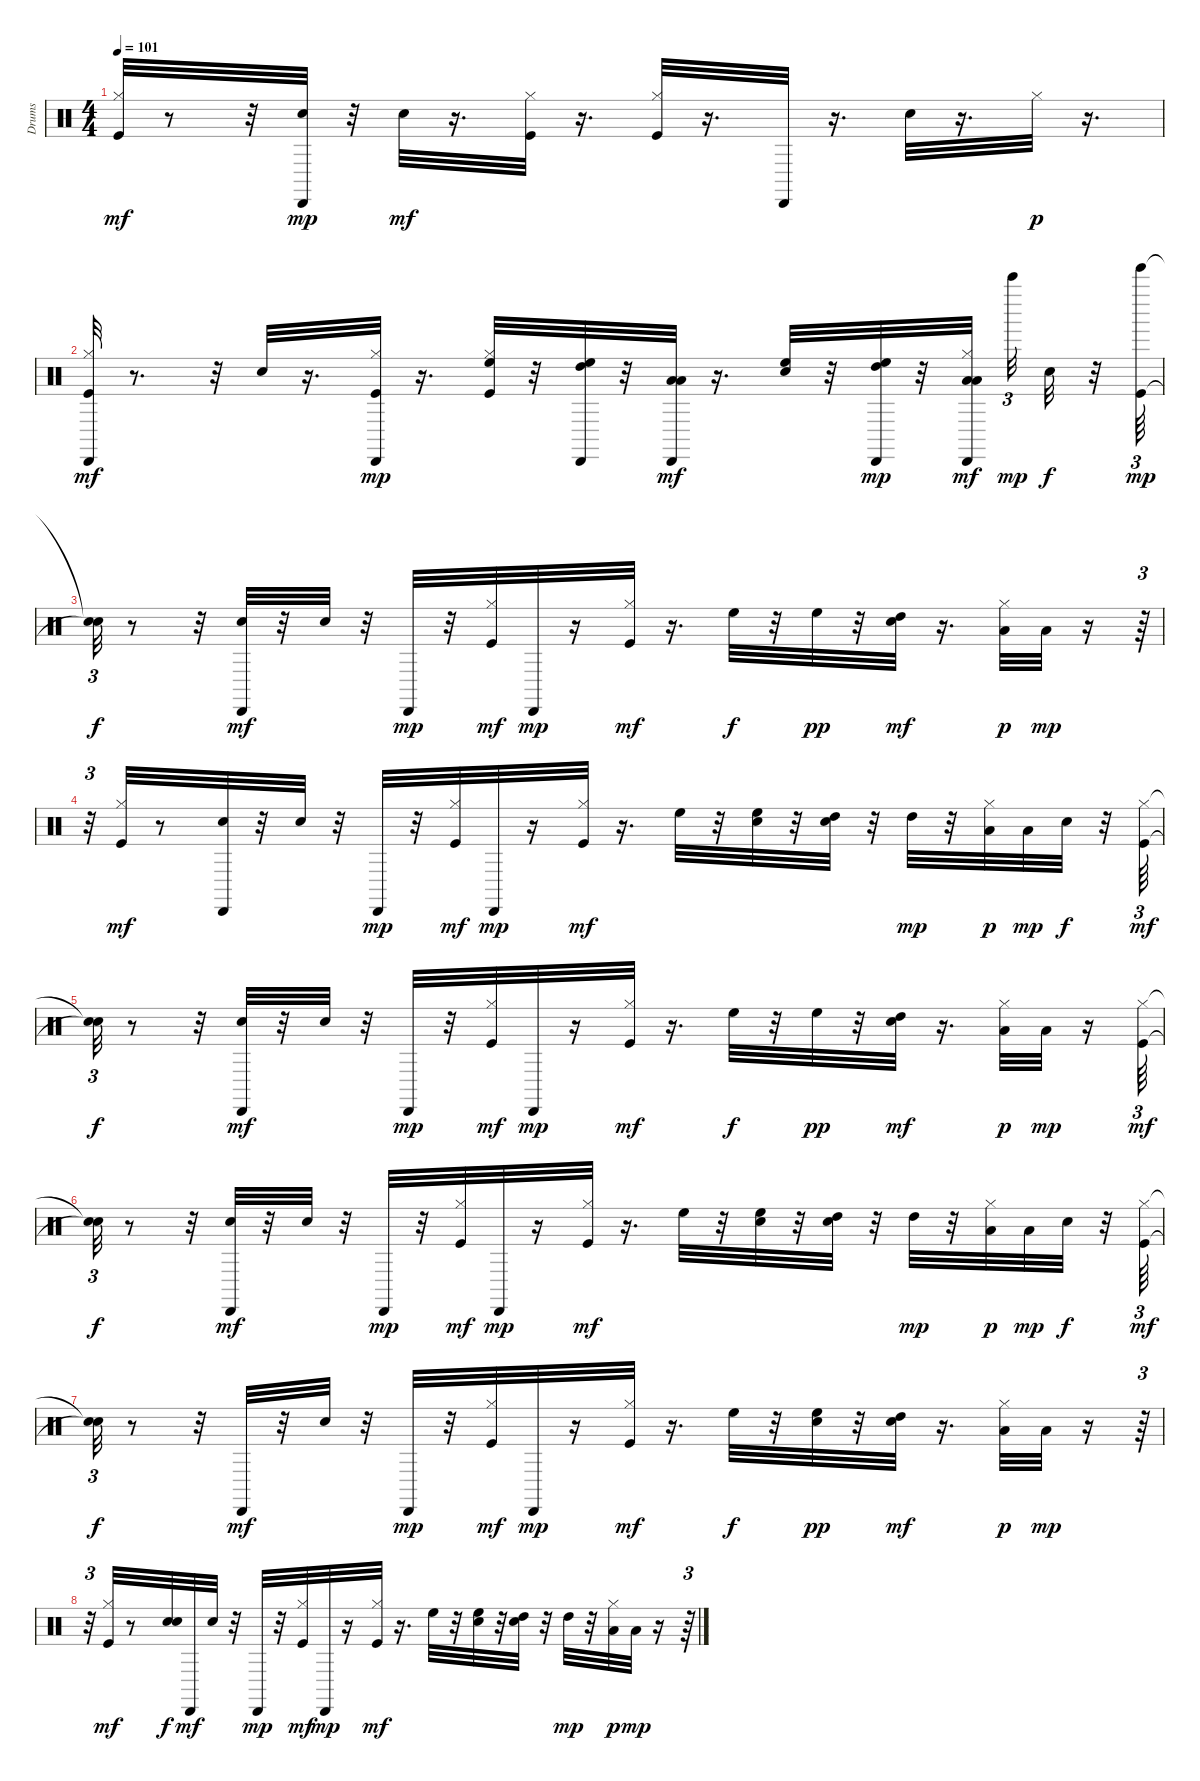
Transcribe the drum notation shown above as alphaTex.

\track ("Drums" "Drums") {instrument percussion}
\staff {score}
\articulation defaults
\ts (4 4)
\tempo 101
\clef neutral
\ks c
("Kick (hit)" "Hi-Hat (closed)").32{dy mf} r.8 r.32 ("Hand Clap (hit)" "Cabasa (hit)").32{dy mp} r.32 "Snare (hit) 2".32{dy mf} r.16{d} ("Kick (hit)" "Hi-Hat (closed)").32 r.16{d} ("Kick (hit)" "Hi-Hat (closed)").32 r.16{d} "Cabasa (hit)".32 r.16{d} "Snare (hit) 2".32 r.16{d} "Hi-Hat (closed)".32{dy p} r.16{d} |
("Kick (hit)" "Hi-Hat (closed)" "Cabasa (hit)").32{dy mf} r.8{d} r.32 "Snare (hit) 2".32 r.16{d} ("Kick (hit)" "Hi-Hat (closed)" "Cabasa (hit)").32{dy mp} r.16{d} ("Kick (hit)" "Hi-Hat (closed)" "High Floor Tom (hit)").32 r.32 ("High Tom (hit)" "High Floor Tom (hit)" "Cabasa (hit)").32 r.32 ("Low Floor Tom (hit)" "Low Tom (hit)" "Cabasa (hit)").32{dy mf} r.16{d} ("Snare (hit) 2" "High Floor Tom (hit)").32 r.32 ("High Tom (hit)" "High Floor Tom (hit)" "Cabasa (hit)").32{dy mp} r.32 ("Low Floor Tom (hit)" "Hi-Hat (closed)" "Low Tom (hit)" "Cabasa (hit)").32{dy mf beam splitsecondary} "Bell Tree (hit)".32{tu (3 2) dy mp} "Hand Clap (hit)".32{dy f} r.32 ("Kick (hit)" "Tinkle Bell (hit)").64{tu (3 2) dy mp} |
("Snare (hit)"{t} "Snare (hit)"{t}).32{tu (3 2) dy f} r.8 r.32 ("Hand Clap (hit)" "Cabasa (hit)").32{dy mf} r.32 "Snare (hit) 2".32 r.32 "Cabasa (hit)".32{dy mp} r.32 ("Kick (hit)" "Hi-Hat (closed)").32{dy mf} "Cabasa (hit)".32{dy mp} r.16 ("Kick (hit)" "Hi-Hat (closed)").32{dy mf} r.16{d} "High Floor Tom (hit)".32{dy f} r.32 "High Floor Tom (hit)".32{dy pp} r.32 ("Snare (hit) 2" "High Tom (hit)").32{dy mf} r.16{d} ("Low Floor Tom (hit)" "Hi-Hat (closed)").32{dy p} "Low Tom (hit)".32{dy mp} r.16 r.64{tu (3 2)} |
r.32{tu (3 2)} ("Kick (hit)" "Hi-Hat (closed)").32{dy mf} r.8 ("Hand Clap (hit)" "Cabasa (hit)").32 r.32 "Snare (hit) 2".32 r.32 "Cabasa (hit)".32{dy mp} r.32 ("Kick (hit)" "Hi-Hat (closed)").32{dy mf} "Cabasa (hit)".32{dy mp} r.16 ("Kick (hit)" "Hi-Hat (closed)").32{dy mf} r.16{d} "High Floor Tom (hit)".32 r.32 ("Hand Clap (hit)" "High Floor Tom (hit)").32 r.32 ("Snare (hit) 2" "High Tom (hit)").32 r.32 "High Tom (hit)".32{dy mp} r.32 ("Low Floor Tom (hit)" "Hi-Hat (closed)").32{dy p} "Low Tom (hit)".32{dy mp} "Hand Clap (hit)".32{dy f} r.32 ("Kick (hit)" "Hi-Hat (closed)").64{tu (3 2) dy mf} |
("Snare (hit)"{t} "Snare (hit)"{t}).32{tu (3 2) dy f} r.8 r.32 ("Hand Clap (hit)" "Cabasa (hit)").32{dy mf} r.32 "Snare (hit) 2".32 r.32 "Cabasa (hit)".32{dy mp} r.32 ("Kick (hit)" "Hi-Hat (closed)").32{dy mf} "Cabasa (hit)".32{dy mp} r.16 ("Kick (hit)" "Hi-Hat (closed)").32{dy mf} r.16{d} "High Floor Tom (hit)".32{dy f} r.32 "High Floor Tom (hit)".32{dy pp} r.32 ("Snare (hit) 2" "High Tom (hit)").32{dy mf} r.16{d} ("Low Floor Tom (hit)" "Hi-Hat (closed)").32{dy p} "Low Tom (hit)".32{dy mp} r.16 ("Kick (hit)" "Hi-Hat (closed)").64{tu (3 2) dy mf} |
("Snare (hit)"{t} "Snare (hit)"{t}).32{tu (3 2) dy f} r.8 r.32 ("Hand Clap (hit)" "Cabasa (hit)").32{dy mf} r.32 "Snare (hit) 2".32 r.32 "Cabasa (hit)".32{dy mp} r.32 ("Kick (hit)" "Hi-Hat (closed)").32{dy mf} "Cabasa (hit)".32{dy mp} r.16 ("Kick (hit)" "Hi-Hat (closed)").32{dy mf} r.16{d} "High Floor Tom (hit)".32 r.32 ("Hand Clap (hit)" "High Floor Tom (hit)").32 r.32 ("Snare (hit) 2" "High Tom (hit)").32 r.32 "High Tom (hit)".32{dy mp} r.32 ("Low Floor Tom (hit)" "Hi-Hat (closed)").32{dy p} "Low Tom (hit)".32{dy mp} "Hand Clap (hit)".32{dy f} r.32 ("Kick (hit)" "Hi-Hat (closed)").64{tu (3 2) dy mf} |
("Snare (hit)"{t} "Snare (hit)"{t}).32{tu (3 2) dy f} r.8 r.32 "Cabasa (hit)".32{dy mf} r.32 "Snare (hit) 2".32 r.32 "Cabasa (hit)".32{dy mp} r.32 ("Kick (hit)" "Hi-Hat (closed)").32{dy mf} "Cabasa (hit)".32{dy mp} r.16 ("Kick (hit)" "Hi-Hat (closed)").32{dy mf} r.16{d} "High Floor Tom (hit)".32{dy f} r.32 ("Hand Clap (hit)" "High Floor Tom (hit)").32{dy pp} r.32 ("Snare (hit) 2" "High Tom (hit)").32{dy mf} r.16{d} ("Low Floor Tom (hit)" "Hi-Hat (closed)").32{dy p} "Low Tom (hit)".32{dy mp} r.16 r.64{tu (3 2)} |
r.32{tu (3 2)} ("Kick (hit)" "Hi-Hat (closed)").32{dy mf} r.8 ("Hand Clap (hit)" "Hand Clap (hit)").32{dy f} "Cabasa (hit)".32{dy mf} "Snare (hit) 2".32 r.32 "Cabasa (hit)".32{dy mp} r.32 ("Kick (hit)" "Hi-Hat (closed)").32{dy mf} "Cabasa (hit)".32{dy mp} r.16 ("Kick (hit)" "Hi-Hat (closed)").32{dy mf} r.16{d} "High Floor Tom (hit)".32 r.32 ("Hand Clap (hit)" "High Floor Tom (hit)").32 r.32 ("Snare (hit) 2" "High Tom (hit)").32 r.32 "High Tom (hit)".32{dy mp} r.32 ("Low Floor Tom (hit)" "Hi-Hat (closed)").32{dy p} "Low Tom (hit)".32{dy mp} r.16 r.64{tu (3 2)}
